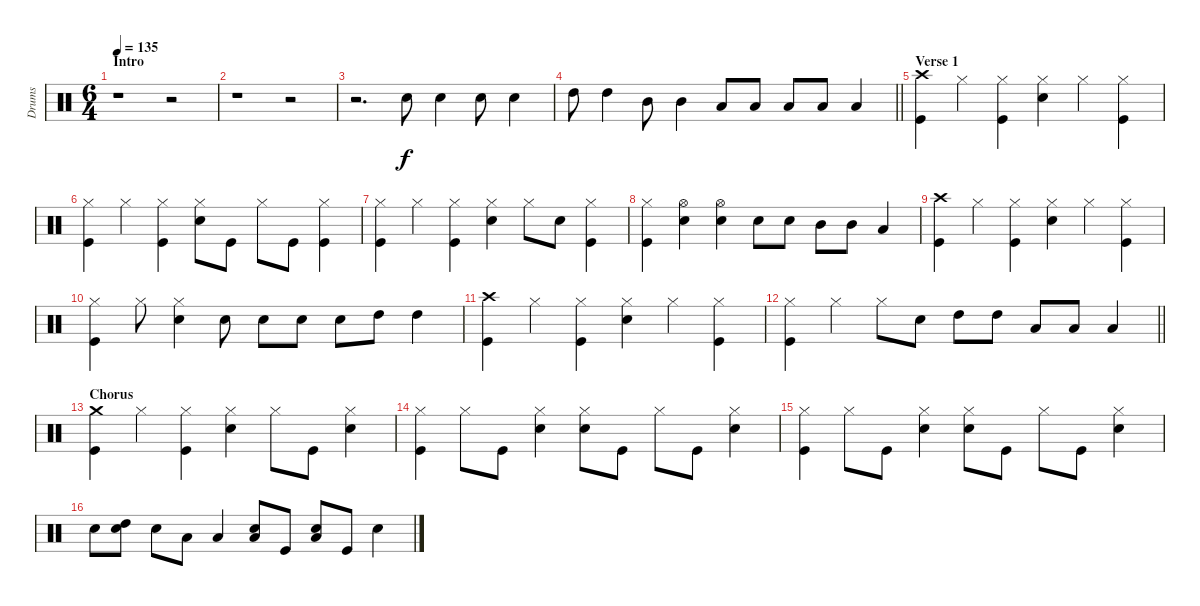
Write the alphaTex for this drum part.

\track ("Drums" "Drums") {instrument percussion}
\staff {score}
\articulation defaults
\ts (6 4)
\section ("" "Intro")
\tempo 135
\clef neutral
\ks c
r.1{dy f} r.2 |
r.1 r.2 |
r.2{d} "Electric Snare (hit)".8 "Electric Snare (hit)".4 "Electric Snare (hit)".8 "Electric Snare (hit)".4 |
\barLineRight lightlight "High Tom (hit)".8 "High Tom (hit)".4 "Mid Tom (hit)".8 "Mid Tom (hit)".4 "Low Tom (hit)".8 "Low Tom (hit)".8 "Low Tom (hit)".8 "Low Tom (hit)".8 "Low Tom (hit)".4
|
\section ("" "Verse 1")
("Crash high (hit)" "Kick (hit)").4 "Hi-Hat (closed)".4 ("Hi-Hat (closed)" "Kick (hit)").4 ("Hi-Hat (closed)" "Electric Snare (hit)").4 "Hi-Hat (closed)".4 ("Hi-Hat (closed)" "Kick (hit)").4 |
("Hi-Hat (closed)" "Kick (hit)").4 "Hi-Hat (closed)".4 ("Hi-Hat (closed)" "Kick (hit)").4 ("Hi-Hat (closed)" "Electric Snare (hit)").8 "Kick (hit)".8 "Hi-Hat (closed)".8 "Kick (hit)".8 ("Hi-Hat (closed)" "Kick (hit)").4 |
("Hi-Hat (closed)" "Kick (hit)").4 "Hi-Hat (closed)".4 ("Hi-Hat (closed)" "Kick (hit)").4 ("Hi-Hat (closed)" "Electric Snare (hit)").4 "Hi-Hat (closed)".8 "Electric Snare (hit)".8 ("Hi-Hat (closed)" "Kick (hit)").4 |
("Hi-Hat (closed)" "Kick (hit)").4 ("Hi-Hat (open)" "Electric Snare (hit)").4 ("Hi-Hat (open)" "Electric Snare (hit)").4 "Electric Snare (hit)".8 "Electric Snare (hit)".8 "Mid Tom (hit)".8 "Mid Tom (hit)".8 "Low Tom (hit)".4 |
("Crash high (hit)" "Kick (hit)").4 "Hi-Hat (closed)".4 ("Hi-Hat (closed)" "Kick (hit)").4 ("Hi-Hat (closed)" "Electric Snare (hit)").4 "Hi-Hat (closed)".4 ("Hi-Hat (closed)" "Kick (hit)").4 |
("Hi-Hat (closed)" "Kick (hit)").4 "Hi-Hat (closed)".8 ("Electric Snare (hit)" "Hi-Hat (closed)").4 "Electric Snare (hit)".8 "Electric Snare (hit)".8 "Electric Snare (hit)".8 "Electric Snare (hit)".8 "High Tom (hit)".8 "High Tom (hit)".4 |
("Crash high (hit)" "Kick (hit)").4 "Hi-Hat (closed)".4 ("Hi-Hat (closed)" "Kick (hit)").4 ("Hi-Hat (closed)" "Electric Snare (hit)").4 "Hi-Hat (closed)".4 ("Hi-Hat (closed)" "Kick (hit)").4 |
\barLineRight lightlight
("Hi-Hat (closed)" "Kick (hit)").4 "Hi-Hat (closed)".4 "Hi-Hat (closed)".8 "Electric Snare (hit)".8 "High Tom (hit)".8 "High Tom (hit)".8 "Low Tom (hit)".8 "Low Tom (hit)".8 "Low Tom (hit)".4 |
\section ("" "Chorus")
("Crash medium (hit)" "Kick (hit)").4 "Hi-Hat (closed)".4 ("Hi-Hat (closed)" "Kick (hit)").4 ("Hi-Hat (closed)" "Electric Snare (hit)").4 "Hi-Hat (closed)".8 "Kick (hit)".8 ("Hi-Hat (closed)" "Electric Snare (hit)").4 |
("Hi-Hat (closed)" "Kick (hit)").4 "Hi-Hat (closed)".8 "Kick (hit)".8 ("Hi-Hat (closed)" "Electric Snare (hit)").4 ("Hi-Hat (closed)" "Electric Snare (hit)").8 "Kick (hit)".8 "Hi-Hat (closed)".8 "Kick (hit)".8 ("Hi-Hat (closed)" "Electric Snare (hit)").4 |
("Hi-Hat (closed)" "Kick (hit)").4 "Hi-Hat (closed)".8 "Kick (hit)".8 ("Hi-Hat (closed)" "Electric Snare (hit)").4 ("Hi-Hat (closed)" "Electric Snare (hit)").8 "Kick (hit)".8 "Hi-Hat (closed)".8 "Kick (hit)".8 ("Hi-Hat (closed)" "Electric Snare (hit)").4 |
"Electric Snare (hit)".8 ("Electric Snare (hit)" "High Tom (hit)").8 "Electric Snare (hit)".8 "Low Tom (hit)".8 "Low Tom (hit)".4 ("Electric Snare (hit)" "Low Tom (hit)").8 "Kick (hit)".8 ("Low Tom (hit)" "Electric Snare (hit)").8 "Kick (hit)".8 "Electric Snare (hit)".4
